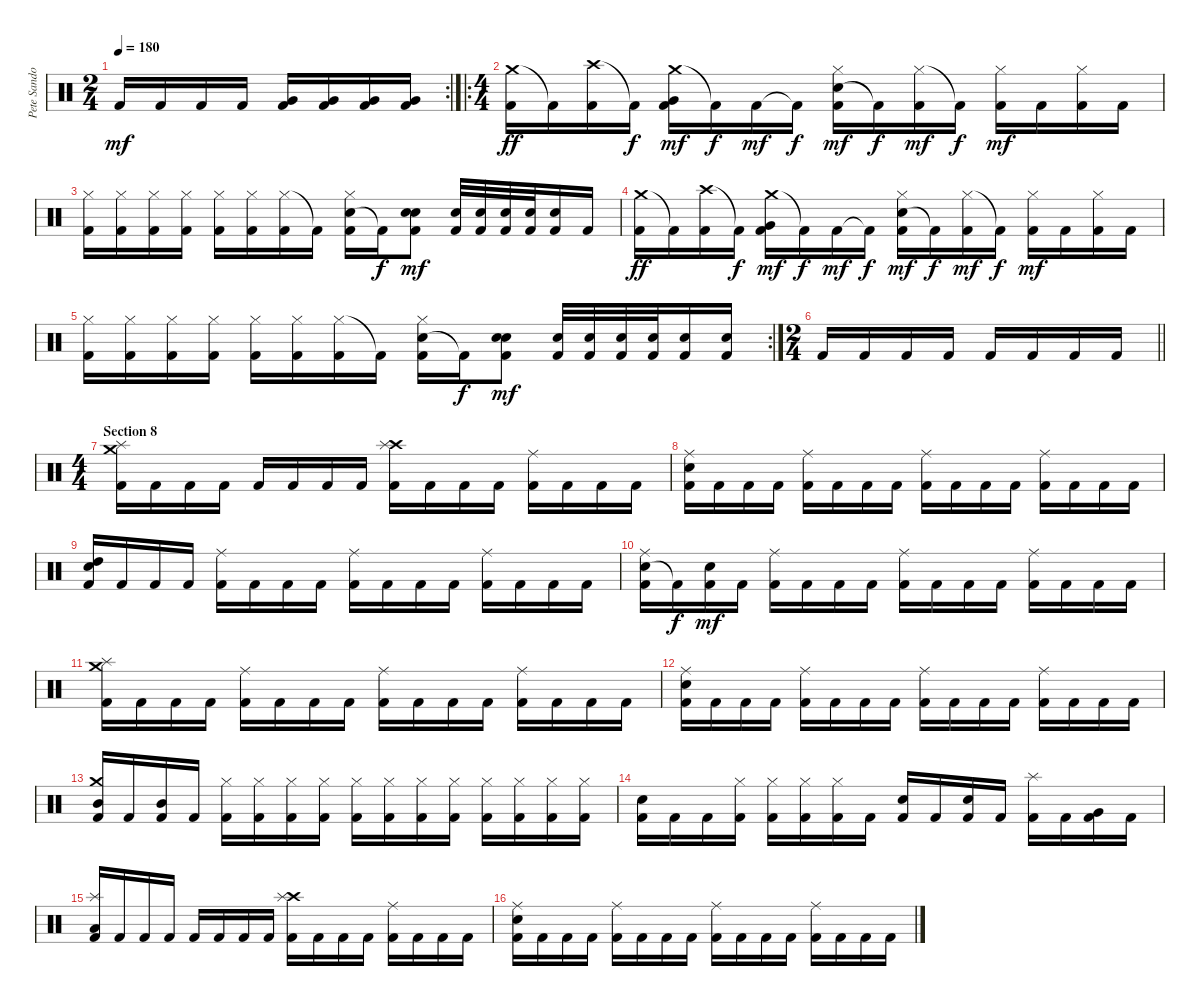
\track ("Pete Sandoval" "Pete Sando") {instrument percussion}
\staff {score}
\articulation defaults
\rc 2
\ts (2 4)
\tempo 180
\clef neutral
\ks c "Kick (hit) 2".16{dy mf} "Kick (hit) 2".16 "Kick (hit) 2".16 "Kick (hit) 2".16
("Very Low Tom (hit)" "Kick (hit) 2").16 ("Very Low Tom (hit)" "Kick (hit) 2").16 ("Very Low Tom (hit)" "Kick (hit) 2").16 ("Very Low Tom (hit)" "Kick (hit) 2").16 |
\ro
\ts (4 4)
("Crash medium (hit)" "Kick (hit) 2").16{dy ff} "Kick (hit) 2"{t}.16 ("Crash high (hit)" "Kick (hit) 2").16 "Kick (hit) 2"{t}.16{dy f} ("Crash medium (hit)" "Very Low Tom (hit)" "Kick (hit) 2").16{dy mf} "Kick (hit) 2"{t}.16{dy f} "Kick (hit) 2".16{dy mf} "Kick (hit) 2"{t}.16{dy f} ("Snare (hit) 2" "Hi-Hat (closed)" "Kick (hit) 2").16{dy mf} "Kick (hit) 2"{t}.16{dy f} ("Hi-Hat (closed)" "Kick (hit) 2").16{dy mf} "Kick (hit) 2"{t}.16{dy f} ("Hi-Hat (closed)" "Kick (hit) 2").16{dy mf} "Kick (hit) 2".16 ("Hi-Hat (closed)" "Kick (hit) 2").16 "Kick (hit) 2".16 |
("Hi-Hat (closed)" "Kick (hit) 2").16 ("Hi-Hat (closed)" "Kick (hit) 2").16 ("Hi-Hat (closed)" "Kick (hit) 2").16 ("Hi-Hat (closed)" "Kick (hit) 2").16 ("Hi-Hat (closed)" "Kick (hit) 2").16 ("Hi-Hat (closed)" "Kick (hit) 2").16 ("Hi-Hat (closed)" "Kick (hit) 2").16 "Kick (hit) 2"{t}.16 ("Snare (hit) 2" "Hi-Hat (closed)" "Kick (hit) 2").16 "Kick (hit) 2"{t}.16{dy f} ("Snare (hit) 2" "Snare (hit) 2" "Kick (hit) 2").8{dy mf} ("Snare (hit) 2" "Kick (hit) 2").32 ("Snare (hit) 2" "Kick (hit) 2").32 ("Snare (hit) 2" "Kick (hit) 2").32 ("Snare (hit) 2" "Kick (hit) 2").32 ("Snare (hit) 2" "Kick (hit) 2").16 "Kick (hit) 2".16 |
("Crash medium (hit)" "Kick (hit) 2").16{dy ff} "Kick (hit) 2"{t}.16 ("Crash high (hit)" "Kick (hit) 2").16 "Kick (hit) 2"{t}.16{dy f} ("Crash medium (hit)" "Very Low Tom (hit)" "Kick (hit) 2").16{dy mf} "Kick (hit) 2"{t}.16{dy f} "Kick (hit) 2".16{dy mf} "Kick (hit) 2"{t}.16{dy f} ("Snare (hit) 2" "Hi-Hat (closed)" "Kick (hit) 2").16{dy mf} "Kick (hit) 2"{t}.16{dy f} ("Hi-Hat (closed)" "Kick (hit) 2").16{dy mf} "Kick (hit) 2"{t}.16{dy f} ("Hi-Hat (closed)" "Kick (hit) 2").16{dy mf} "Kick (hit) 2".16 ("Hi-Hat (closed)" "Kick (hit) 2").16 "Kick (hit) 2".16 |
\rc 2
("Hi-Hat (closed)" "Kick (hit) 2").16 ("Hi-Hat (closed)" "Kick (hit) 2").16 ("Hi-Hat (closed)" "Kick (hit) 2").16 ("Hi-Hat (closed)" "Kick (hit) 2").16 ("Hi-Hat (closed)" "Kick (hit) 2").16 ("Hi-Hat (closed)" "Kick (hit) 2").16 ("Hi-Hat (closed)" "Kick (hit) 2").16 "Kick (hit) 2"{t}.16 ("Snare (hit) 2" "Hi-Hat (closed)" "Kick (hit) 2").16 "Kick (hit) 2"{t}.16{dy f} ("Snare (hit) 2" "Snare (hit) 2" "Kick (hit) 2").8{dy mf} ("Snare (hit) 2" "Kick (hit) 2").32 ("Snare (hit) 2" "Kick (hit) 2").32 ("Snare (hit) 2" "Kick (hit) 2").32 ("Snare (hit) 2" "Kick (hit) 2").32 ("Snare (hit) 2" "Kick (hit) 2").16 ("Snare (hit) 2" "Kick (hit) 2").16 |
\ts (2 4)
\barLineRight lightlight "Kick (hit) 2".16 "Kick (hit) 2".16 "Kick (hit) 2".16 "Kick (hit) 2".16 "Kick (hit) 2".16 "Kick (hit) 2".16 "Kick (hit) 2".16 "Kick (hit) 2".16
|
\ts (4 4)
\section ("" "Section 8")
("Crash medium (hit)" "Splash (hit)" "Kick (hit) 2").16 "Kick (hit) 2".16 "Kick (hit) 2".16 "Kick (hit) 2".16 "Kick (hit) 2".16 "Kick (hit) 2".16 "Kick (hit) 2".16 "Kick (hit) 2".16 ("Crash high (hit)" "Splash (hit)" "Kick (hit) 2").16 "Kick (hit) 2".16 "Kick (hit) 2".16 "Kick (hit) 2".16 ("Ride (middle)" "Kick (hit) 2").16 "Kick (hit) 2".16 "Kick (hit) 2".16 "Kick (hit) 2".16 |
("Snare (hit) 2" "Ride (middle)" "Kick (hit) 2").16 "Kick (hit) 2".16 "Kick (hit) 2".16 "Kick (hit) 2".16 ("Ride (middle)" "Kick (hit) 2").16 "Kick (hit) 2".16 "Kick (hit) 2".16 "Kick (hit) 2".16 ("Ride (middle)" "Kick (hit) 2").16 "Kick (hit) 2".16 "Kick (hit) 2".16 "Kick (hit) 2".16 ("Ride (middle)" "Kick (hit) 2").16 "Kick (hit) 2".16 "Kick (hit) 2".16 "Kick (hit) 2".16 |
("Snare (hit) 2" "High Tom (hit)" "Kick (hit) 2").16 "Kick (hit) 2".16 "Kick (hit) 2".16 "Kick (hit) 2".16 ("Ride (middle)" "Kick (hit) 2").16 "Kick (hit) 2".16 "Kick (hit) 2".16 "Kick (hit) 2".16 ("Ride (middle)" "Kick (hit) 2").16 "Kick (hit) 2".16 "Kick (hit) 2".16 "Kick (hit) 2".16 ("Ride (middle)" "Kick (hit) 2").16 "Kick (hit) 2".16 "Kick (hit) 2".16 "Kick (hit) 2".16 |
("Snare (hit) 2" "Ride (middle)" "Kick (hit) 2").16 "Kick (hit) 2"{t}.16{dy f} ("Snare (hit) 2" "Kick (hit) 2").16{dy mf} "Kick (hit) 2".16 ("Ride (middle)" "Kick (hit) 2").16 "Kick (hit) 2".16 "Kick (hit) 2".16 "Kick (hit) 2".16 ("Ride (middle)" "Kick (hit) 2").16 "Kick (hit) 2".16 "Kick (hit) 2".16 "Kick (hit) 2".16 ("Ride (middle)" "Kick (hit) 2").16 "Kick (hit) 2".16 "Kick (hit) 2".16 "Kick (hit) 2".16 |
("Crash medium (hit)" "Splash (hit)" "Kick (hit) 2").16 "Kick (hit) 2".16 "Kick (hit) 2".16 "Kick (hit) 2".16 ("Ride (middle)" "Kick (hit) 2").16 "Kick (hit) 2".16 "Kick (hit) 2".16 "Kick (hit) 2".16 ("Ride (middle)" "Kick (hit) 2").16 "Kick (hit) 2".16 "Kick (hit) 2".16 "Kick (hit) 2".16 ("Ride (middle)" "Kick (hit) 2").16 "Kick (hit) 2".16 "Kick (hit) 2".16 "Kick (hit) 2".16 |
("Snare (hit) 2" "Ride (middle)" "Kick (hit) 2").16 "Kick (hit) 2".16 "Kick (hit) 2".16 "Kick (hit) 2".16 ("Ride (middle)" "Kick (hit) 2").16 "Kick (hit) 2".16 "Kick (hit) 2".16 "Kick (hit) 2".16 ("Ride (middle)" "Kick (hit) 2").16 "Kick (hit) 2".16 "Kick (hit) 2".16 "Kick (hit) 2".16 ("Ride (middle)" "Kick (hit) 2").16 "Kick (hit) 2".16 "Kick (hit) 2".16 "Kick (hit) 2".16 |
("Crash medium (hit)" "Mid Tom (hit)" "Kick (hit) 2").16 "Kick (hit) 2".16 ("Mid Tom (hit)" "Kick (hit) 2").16 "Kick (hit) 2".16 ("Hi-Hat (closed)" "Kick (hit) 2").16 ("Hi-Hat (closed)" "Kick (hit) 2").16 ("Hi-Hat (closed)" "Kick (hit) 2").16 ("Hi-Hat (closed)" "Kick (hit) 2").16 ("Hi-Hat (closed)" "Kick (hit) 2").16 ("Hi-Hat (closed)" "Kick (hit) 2").16 ("Hi-Hat (closed)" "Kick (hit) 2").16 ("Hi-Hat (closed)" "Kick (hit) 2").16 ("Hi-Hat (closed)" "Kick (hit) 2").16 ("Hi-Hat (closed)" "Kick (hit) 2").16 ("Hi-Hat (closed)" "Kick (hit) 2").16 ("Hi-Hat (closed)" "Kick (hit) 2").16 |
("Snare (hit) 2" "Kick (hit) 2").16 "Kick (hit) 2".16 "Kick (hit) 2".16 ("Hi-Hat (closed)" "Kick (hit) 2").16 ("Hi-Hat (closed)" "Kick (hit) 2").16 ("Hi-Hat (closed)" "Kick (hit) 2").16 ("Hi-Hat (closed)" "Kick (hit) 2").16 "Kick (hit) 2".16 ("Snare (hit) 2" "Kick (hit) 2").16 "Kick (hit) 2".16 ("Snare (hit) 2" "Kick (hit) 2").16 "Kick (hit) 2".16 ("Splash (hit)" "Kick (hit) 2").16 "Kick (hit) 2".16 ("Very Low Tom (hit)" "Kick (hit) 2").16 "Kick (hit) 2".16 |
("Splash (hit)" "Low Floor Tom (hit)" "Kick (hit) 2").16 "Kick (hit) 2".16 "Kick (hit) 2".16 "Kick (hit) 2".16 "Kick (hit) 2".16 "Kick (hit) 2".16 "Kick (hit) 2".16 "Kick (hit) 2".16 ("Crash high (hit)" "Splash (hit)" "Kick (hit) 2").16 "Kick (hit) 2".16 "Kick (hit) 2".16 "Kick (hit) 2".16 ("Ride (middle)" "Kick (hit) 2").16 "Kick (hit) 2".16 "Kick (hit) 2".16 "Kick (hit) 2".16 |
("Snare (hit) 2" "Ride (middle)" "Kick (hit) 2").16 "Kick (hit) 2".16 "Kick (hit) 2".16 "Kick (hit) 2".16 ("Ride (middle)" "Kick (hit) 2").16 "Kick (hit) 2".16 "Kick (hit) 2".16 "Kick (hit) 2".16 ("Ride (middle)" "Kick (hit) 2").16 "Kick (hit) 2".16 "Kick (hit) 2".16 "Kick (hit) 2".16 ("Ride (middle)" "Kick (hit) 2").16 "Kick (hit) 2".16 "Kick (hit) 2".16 "Kick (hit) 2".16
